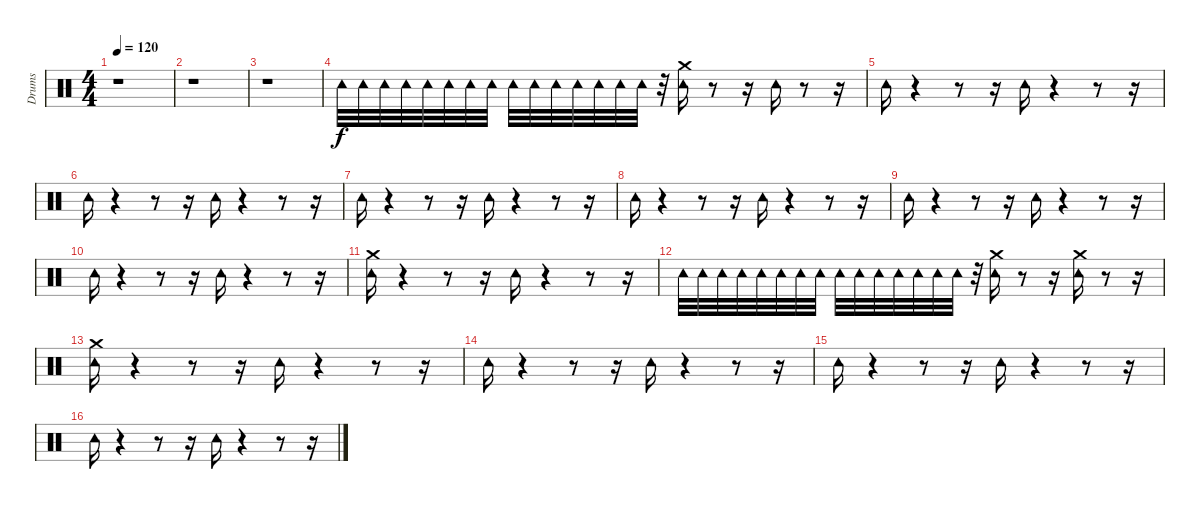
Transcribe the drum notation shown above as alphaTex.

\track ("Drums" "Drums") {instrument percussion}
\staff {score}
\articulation defaults
\ts (4 4)
\tempo 120
\clef neutral
\ks c
r.1{dy f} |
r.1 |
r.1 |
"Tambourine (hit)".32 "Tambourine (hit)".32 "Tambourine (hit)".32 "Tambourine (hit)".32 "Tambourine (hit)".32 "Tambourine (hit)".32 "Tambourine (hit)".32 "Tambourine (hit)".32 "Tambourine (hit)".32 "Tambourine (hit)".32 "Tambourine (hit)".32 "Tambourine (hit)".32 "Tambourine (hit)".32 "Tambourine (hit)".32 "Tambourine (hit)".32 r.32 ("Crash medium (hit)" "Tambourine (hit)").16 r.8 r.16 "Tambourine (hit)".16 r.8 r.16 |
"Tambourine (hit)".16 r.4 r.8 r.16 "Tambourine (hit)".16 r.4 r.8 r.16 |
"Tambourine (hit)".16 r.4 r.8 r.16 "Tambourine (hit)".16 r.4 r.8 r.16 |
"Tambourine (hit)".16 r.4 r.8 r.16 "Tambourine (hit)".16 r.4 r.8 r.16 |
"Tambourine (hit)".16 r.4 r.8 r.16 "Tambourine (hit)".16 r.4 r.8 r.16 |
"Tambourine (hit)".16 r.4 r.8 r.16 "Tambourine (hit)".16 r.4 r.8 r.16 |
"Tambourine (hit)".16 r.4 r.8 r.16 "Tambourine (hit)".16 r.4 r.8 r.16 |
("Crash medium (hit)" "Tambourine (hit)").16 r.4 r.8 r.16 "Tambourine (hit)".16 r.4 r.8 r.16 |
"Tambourine (hit)".32 "Tambourine (hit)".32 "Tambourine (hit)".32 "Tambourine (hit)".32 "Tambourine (hit)".32 "Tambourine (hit)".32 "Tambourine (hit)".32 "Tambourine (hit)".32 "Tambourine (hit)".32 "Tambourine (hit)".32 "Tambourine (hit)".32 "Tambourine (hit)".32 "Tambourine (hit)".32 "Tambourine (hit)".32 "Tambourine (hit)".32 r.32 ("Crash medium (hit)" "Tambourine (hit)").16 r.8 r.16 ("Crash medium (hit)" "Tambourine (hit)").16 r.8 r.16 |
("Crash medium (hit)" "Tambourine (hit)").16 r.4 r.8 r.16 "Tambourine (hit)".16 r.4 r.8 r.16 |
"Tambourine (hit)".16 r.4 r.8 r.16 "Tambourine (hit)".16 r.4 r.8 r.16 |
"Tambourine (hit)".16 r.4 r.8 r.16 "Tambourine (hit)".16 r.4 r.8 r.16 |
"Tambourine (hit)".16 r.4 r.8 r.16 "Tambourine (hit)".16 r.4 r.8 r.16
